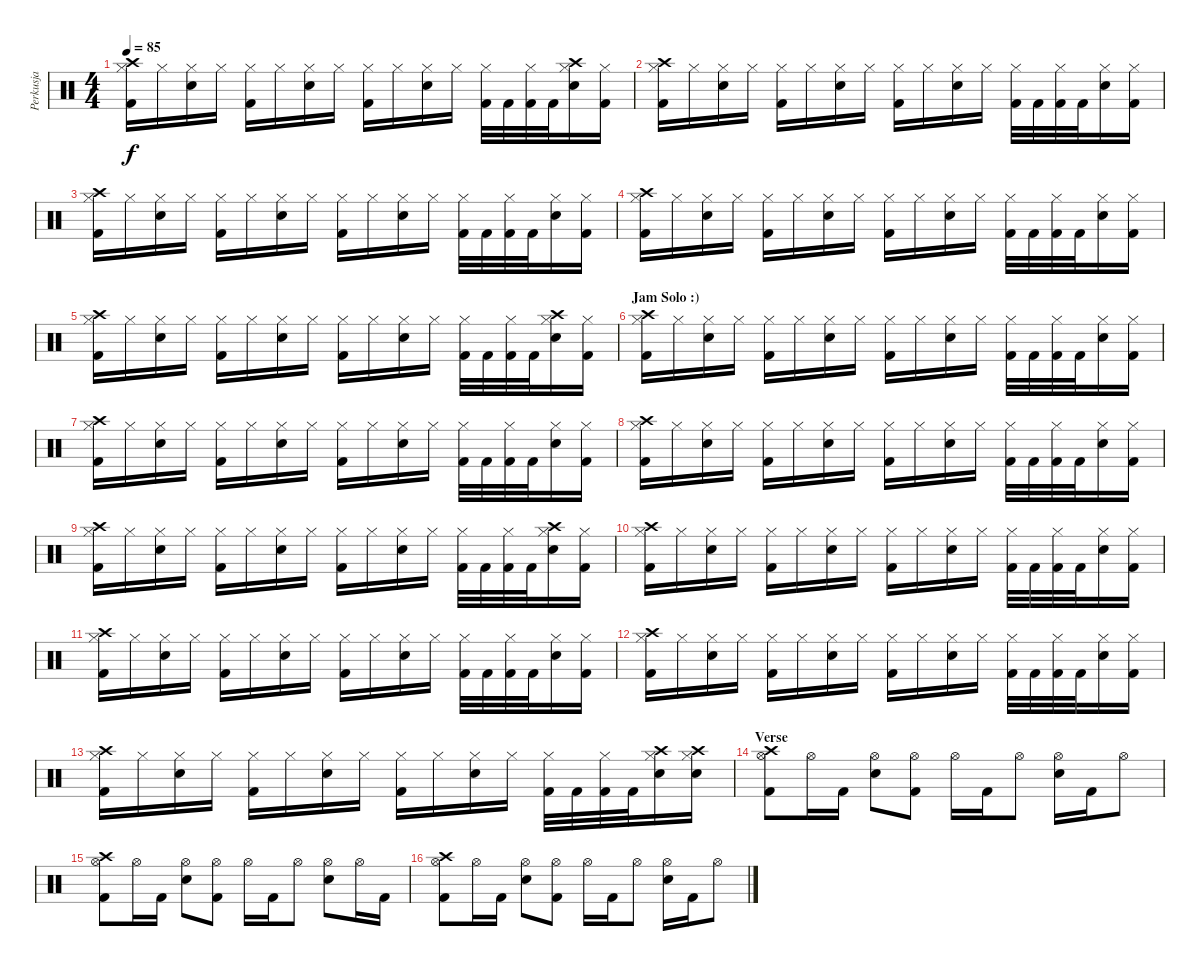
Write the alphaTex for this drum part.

\track ("Perkusja" "Perkusja") {instrument percussion}
\staff {score}
\articulation defaults
\ts (4 4)
\tempo 85
\clef neutral
\ks c
("Hi-Hat (closed)" "Kick (hit) 2" "Crash high (hit)").16{dy f} "Hi-Hat (closed)".16 ("Hi-Hat (closed)" "Snare (hit) 2").16 "Hi-Hat (closed)".16 ("Hi-Hat (closed)" "Kick (hit) 2").16 "Hi-Hat (closed)".16 ("Hi-Hat (closed)" "Snare (hit) 2").16 "Hi-Hat (closed)".16 ("Hi-Hat (closed)" "Kick (hit) 2").16 "Hi-Hat (closed)".16 ("Hi-Hat (closed)" "Snare (hit) 2").16 "Hi-Hat (closed)".16 ("Hi-Hat (closed)" "Kick (hit) 2").32 "Kick (hit) 2".32 ("Hi-Hat (closed)" "Kick (hit) 2").32 "Kick (hit) 2".32 ("Hi-Hat (closed)" "Snare (hit) 2" "Crash high (hit)").16 ("Hi-Hat (closed)" "Kick (hit) 2").16 |
("Hi-Hat (closed)" "Kick (hit) 2" "Crash high (hit)").16 "Hi-Hat (closed)".16 ("Hi-Hat (closed)" "Snare (hit) 2").16 "Hi-Hat (closed)".16 ("Hi-Hat (closed)" "Kick (hit) 2").16 "Hi-Hat (closed)".16 ("Hi-Hat (closed)" "Snare (hit) 2").16 "Hi-Hat (closed)".16 ("Hi-Hat (closed)" "Kick (hit) 2").16 "Hi-Hat (closed)".16 ("Hi-Hat (closed)" "Snare (hit) 2").16 "Hi-Hat (closed)".16 ("Hi-Hat (closed)" "Kick (hit) 2").32 "Kick (hit) 2".32 ("Hi-Hat (closed)" "Kick (hit) 2").32 "Kick (hit) 2".32 ("Hi-Hat (closed)" "Snare (hit) 2").16 ("Hi-Hat (closed)" "Kick (hit) 2").16 |
("Hi-Hat (closed)" "Kick (hit) 2" "Crash high (hit)").16 "Hi-Hat (closed)".16 ("Hi-Hat (closed)" "Snare (hit) 2").16 "Hi-Hat (closed)".16 ("Hi-Hat (closed)" "Kick (hit) 2").16 "Hi-Hat (closed)".16 ("Hi-Hat (closed)" "Snare (hit) 2").16 "Hi-Hat (closed)".16 ("Hi-Hat (closed)" "Kick (hit) 2").16 "Hi-Hat (closed)".16 ("Hi-Hat (closed)" "Snare (hit) 2").16 "Hi-Hat (closed)".16 ("Hi-Hat (closed)" "Kick (hit) 2").32 "Kick (hit) 2".32 ("Hi-Hat (closed)" "Kick (hit) 2").32 "Kick (hit) 2".32 ("Hi-Hat (closed)" "Snare (hit) 2").16 ("Hi-Hat (closed)" "Kick (hit) 2").16 |
("Hi-Hat (closed)" "Kick (hit) 2" "Crash high (hit)").16 "Hi-Hat (closed)".16 ("Hi-Hat (closed)" "Snare (hit) 2").16 "Hi-Hat (closed)".16 ("Hi-Hat (closed)" "Kick (hit) 2").16 "Hi-Hat (closed)".16 ("Hi-Hat (closed)" "Snare (hit) 2").16 "Hi-Hat (closed)".16 ("Hi-Hat (closed)" "Kick (hit) 2").16 "Hi-Hat (closed)".16 ("Hi-Hat (closed)" "Snare (hit) 2").16 "Hi-Hat (closed)".16 ("Hi-Hat (closed)" "Kick (hit) 2").32 "Kick (hit) 2".32 ("Hi-Hat (closed)" "Kick (hit) 2").32 "Kick (hit) 2".32 ("Hi-Hat (closed)" "Snare (hit) 2").16 ("Hi-Hat (closed)" "Kick (hit) 2").16 |
("Hi-Hat (closed)" "Kick (hit) 2" "Crash high (hit)").16 "Hi-Hat (closed)".16 ("Hi-Hat (closed)" "Snare (hit) 2").16 "Hi-Hat (closed)".16 ("Hi-Hat (closed)" "Kick (hit) 2").16 "Hi-Hat (closed)".16 ("Hi-Hat (closed)" "Snare (hit) 2").16 "Hi-Hat (closed)".16 ("Hi-Hat (closed)" "Kick (hit) 2").16 "Hi-Hat (closed)".16 ("Hi-Hat (closed)" "Snare (hit) 2").16 "Hi-Hat (closed)".16 ("Hi-Hat (closed)" "Kick (hit) 2").32 "Kick (hit) 2".32 ("Hi-Hat (closed)" "Kick (hit) 2").32 "Kick (hit) 2".32 ("Hi-Hat (closed)" "Snare (hit) 2" "Crash high (hit)").16 ("Hi-Hat (closed)" "Kick (hit) 2").16 |
\section ("" "Jam Solo :)")
("Hi-Hat (closed)" "Kick (hit) 2" "Crash high (hit)").16 "Hi-Hat (closed)".16 ("Hi-Hat (closed)" "Snare (hit) 2").16 "Hi-Hat (closed)".16 ("Hi-Hat (closed)" "Kick (hit) 2").16 "Hi-Hat (closed)".16 ("Hi-Hat (closed)" "Snare (hit) 2").16 "Hi-Hat (closed)".16 ("Hi-Hat (closed)" "Kick (hit) 2").16 "Hi-Hat (closed)".16 ("Hi-Hat (closed)" "Snare (hit) 2").16 "Hi-Hat (closed)".16 ("Hi-Hat (closed)" "Kick (hit) 2").32 "Kick (hit) 2".32 ("Hi-Hat (closed)" "Kick (hit) 2").32 "Kick (hit) 2".32 ("Hi-Hat (closed)" "Snare (hit) 2").16 ("Hi-Hat (closed)" "Kick (hit) 2").16 |
("Hi-Hat (closed)" "Kick (hit) 2" "Crash high (hit)").16 "Hi-Hat (closed)".16 ("Hi-Hat (closed)" "Snare (hit) 2").16 "Hi-Hat (closed)".16 ("Hi-Hat (closed)" "Kick (hit) 2").16 "Hi-Hat (closed)".16 ("Hi-Hat (closed)" "Snare (hit) 2").16 "Hi-Hat (closed)".16 ("Hi-Hat (closed)" "Kick (hit) 2").16 "Hi-Hat (closed)".16 ("Hi-Hat (closed)" "Snare (hit) 2").16 "Hi-Hat (closed)".16 ("Hi-Hat (closed)" "Kick (hit) 2").32 "Kick (hit) 2".32 ("Hi-Hat (closed)" "Kick (hit) 2").32 "Kick (hit) 2".32 ("Hi-Hat (closed)" "Snare (hit) 2").16 ("Hi-Hat (closed)" "Kick (hit) 2").16 |
("Hi-Hat (closed)" "Kick (hit) 2" "Crash high (hit)").16 "Hi-Hat (closed)".16 ("Hi-Hat (closed)" "Snare (hit) 2").16 "Hi-Hat (closed)".16 ("Hi-Hat (closed)" "Kick (hit) 2").16 "Hi-Hat (closed)".16 ("Hi-Hat (closed)" "Snare (hit) 2").16 "Hi-Hat (closed)".16 ("Hi-Hat (closed)" "Kick (hit) 2").16 "Hi-Hat (closed)".16 ("Hi-Hat (closed)" "Snare (hit) 2").16 "Hi-Hat (closed)".16 ("Hi-Hat (closed)" "Kick (hit) 2").32 "Kick (hit) 2".32 ("Hi-Hat (closed)" "Kick (hit) 2").32 "Kick (hit) 2".32 ("Hi-Hat (closed)" "Snare (hit) 2").16 ("Hi-Hat (closed)" "Kick (hit) 2").16 |
("Hi-Hat (closed)" "Kick (hit) 2" "Crash high (hit)").16 "Hi-Hat (closed)".16 ("Hi-Hat (closed)" "Snare (hit) 2").16 "Hi-Hat (closed)".16 ("Hi-Hat (closed)" "Kick (hit) 2").16 "Hi-Hat (closed)".16 ("Hi-Hat (closed)" "Snare (hit) 2").16 "Hi-Hat (closed)".16 ("Hi-Hat (closed)" "Kick (hit) 2").16 "Hi-Hat (closed)".16 ("Hi-Hat (closed)" "Snare (hit) 2").16 "Hi-Hat (closed)".16 ("Hi-Hat (closed)" "Kick (hit) 2").32 "Kick (hit) 2".32 ("Hi-Hat (closed)" "Kick (hit) 2").32 "Kick (hit) 2".32 ("Hi-Hat (closed)" "Snare (hit) 2" "Crash high (hit)").16 ("Hi-Hat (closed)" "Kick (hit) 2").16 |
("Hi-Hat (closed)" "Kick (hit) 2" "Crash high (hit)").16 "Hi-Hat (closed)".16 ("Hi-Hat (closed)" "Snare (hit) 2").16 "Hi-Hat (closed)".16 ("Hi-Hat (closed)" "Kick (hit) 2").16 "Hi-Hat (closed)".16 ("Hi-Hat (closed)" "Snare (hit) 2").16 "Hi-Hat (closed)".16 ("Hi-Hat (closed)" "Kick (hit) 2").16 "Hi-Hat (closed)".16 ("Hi-Hat (closed)" "Snare (hit) 2").16 "Hi-Hat (closed)".16 ("Hi-Hat (closed)" "Kick (hit) 2").32 "Kick (hit) 2".32 ("Hi-Hat (closed)" "Kick (hit) 2").32 "Kick (hit) 2".32 ("Hi-Hat (closed)" "Snare (hit) 2").16 ("Hi-Hat (closed)" "Kick (hit) 2").16 |
("Hi-Hat (closed)" "Kick (hit) 2" "Crash high (hit)").16 "Hi-Hat (closed)".16 ("Hi-Hat (closed)" "Snare (hit) 2").16 "Hi-Hat (closed)".16 ("Hi-Hat (closed)" "Kick (hit) 2").16 "Hi-Hat (closed)".16 ("Hi-Hat (closed)" "Snare (hit) 2").16 "Hi-Hat (closed)".16 ("Hi-Hat (closed)" "Kick (hit) 2").16 "Hi-Hat (closed)".16 ("Hi-Hat (closed)" "Snare (hit) 2").16 "Hi-Hat (closed)".16 ("Hi-Hat (closed)" "Kick (hit) 2").32 "Kick (hit) 2".32 ("Hi-Hat (closed)" "Kick (hit) 2").32 "Kick (hit) 2".32 ("Hi-Hat (closed)" "Snare (hit) 2").16 ("Hi-Hat (closed)" "Kick (hit) 2").16 |
("Hi-Hat (closed)" "Kick (hit) 2" "Crash high (hit)").16 "Hi-Hat (closed)".16 ("Hi-Hat (closed)" "Snare (hit) 2").16 "Hi-Hat (closed)".16 ("Hi-Hat (closed)" "Kick (hit) 2").16 "Hi-Hat (closed)".16 ("Hi-Hat (closed)" "Snare (hit) 2").16 "Hi-Hat (closed)".16 ("Hi-Hat (closed)" "Kick (hit) 2").16 "Hi-Hat (closed)".16 ("Hi-Hat (closed)" "Snare (hit) 2").16 "Hi-Hat (closed)".16 ("Hi-Hat (closed)" "Kick (hit) 2").32 "Kick (hit) 2".32 ("Hi-Hat (closed)" "Kick (hit) 2").32 "Kick (hit) 2".32 ("Hi-Hat (closed)" "Snare (hit) 2").16 ("Hi-Hat (closed)" "Kick (hit) 2").16 |
("Hi-Hat (closed)" "Kick (hit) 2" "Crash high (hit)").16 "Hi-Hat (closed)".16 ("Hi-Hat (closed)" "Snare (hit) 2").16 "Hi-Hat (closed)".16 ("Hi-Hat (closed)" "Kick (hit) 2").16 "Hi-Hat (closed)".16 ("Hi-Hat (closed)" "Snare (hit) 2").16 "Hi-Hat (closed)".16 ("Hi-Hat (closed)" "Kick (hit) 2").16 "Hi-Hat (closed)".16 ("Hi-Hat (closed)" "Snare (hit) 2").16 "Hi-Hat (closed)".16 ("Hi-Hat (closed)" "Kick (hit) 2").32 "Kick (hit) 2".32 ("Hi-Hat (closed)" "Kick (hit) 2").32 "Kick (hit) 2".32 ("Hi-Hat (closed)" "Snare (hit) 2" "Crash high (hit)").16 ("Hi-Hat (closed)" "Snare (hit) 2" "Crash high (hit)").16 |
\section ("" "Verse")
("Hi-Hat (open)" "Kick (hit) 2" "Crash high (hit)").8 "Hi-Hat (open)".16 "Kick (hit) 2".16 ("Hi-Hat (open)" "Snare (hit) 2").8 ("Hi-Hat (open)" "Kick (hit) 2").8 "Hi-Hat (open)".16 "Kick (hit) 2".16 "Hi-Hat (open)".8 ("Hi-Hat (open)" "Snare (hit) 2").16 "Kick (hit) 2".16 "Hi-Hat (open)".8 |
("Hi-Hat (open)" "Kick (hit) 2" "Crash high (hit)").8 "Hi-Hat (open)".16 "Kick (hit) 2".16 ("Hi-Hat (open)" "Snare (hit) 2").8 ("Hi-Hat (open)" "Kick (hit) 2").8 "Hi-Hat (open)".16 "Kick (hit) 2".16 "Hi-Hat (open)".8 ("Hi-Hat (open)" "Snare (hit) 2").8 "Hi-Hat (open)".16 "Kick (hit) 2".16 |
("Hi-Hat (open)" "Kick (hit) 2" "Crash high (hit)").8 "Hi-Hat (open)".16 "Kick (hit) 2".16 ("Hi-Hat (open)" "Snare (hit) 2").8 ("Hi-Hat (open)" "Kick (hit) 2").8 "Hi-Hat (open)".16 "Kick (hit) 2".16 "Hi-Hat (open)".8 ("Hi-Hat (open)" "Snare (hit) 2").16 "Kick (hit) 2".16 "Hi-Hat (open)".8
